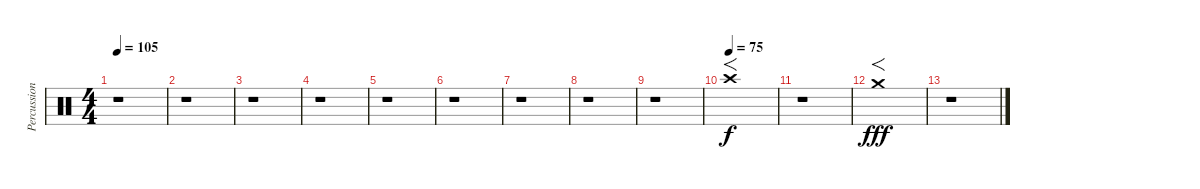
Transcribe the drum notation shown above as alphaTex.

\track ("Percussion" "Percussion") {instrument percussion}
\staff {score}
\articulation defaults
\ts (4 4)
\tempo 105
\clef neutral
\ks c
r.1{dy mp} |
r.1 |
r.1 |
r.1 |
r.1 |
r.1 |
r.1 |
r.1 |
r.1 |
\tempo (75)
"Crash high (hit)".1{f dy f} |
r.1 |
"Crash medium (hit)".1{f dy fff} |
r.1
